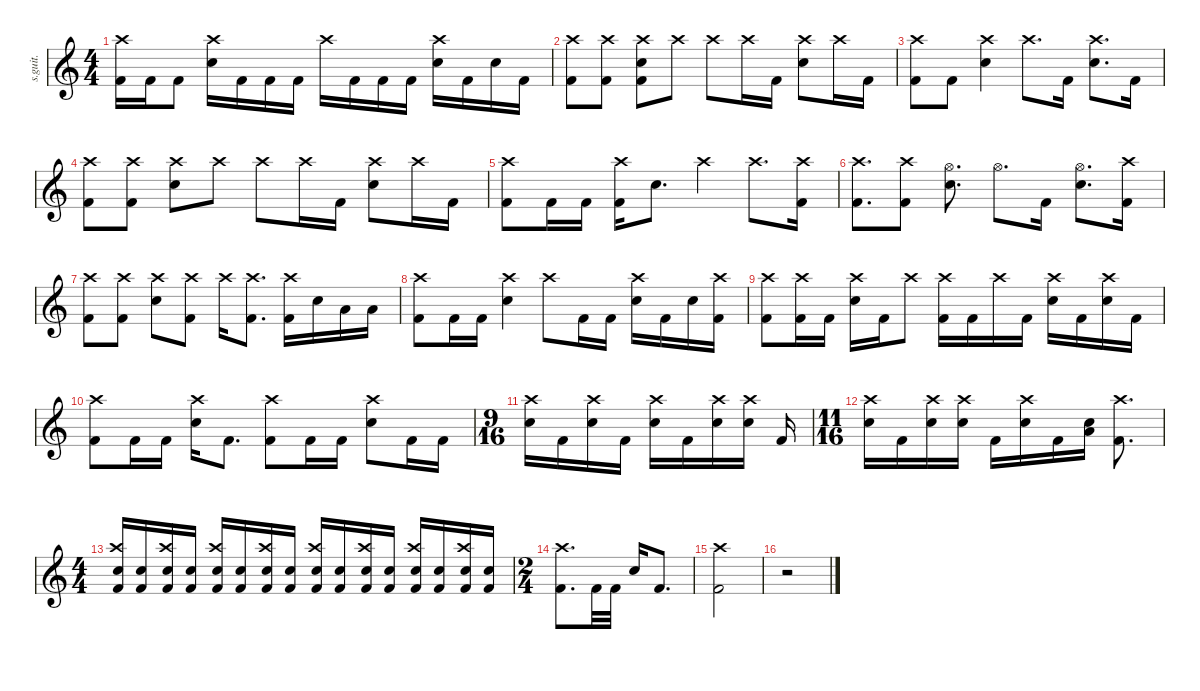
\defaultSystemsLayout 4
\hideDynamics
\bracketExtendMode nobrackets
\track ("" "s.guit.") {instrument percussion}
\staff {score}
\articulation defaults
\ts (4 4)
\tempo (106 hide)
\clef g2
\ks c
("Kick (hit) 2" "Crash high (hit)").16{lyrics (0 "") lyrics (1 "") lyrics (2 "") lyrics (3 "") lyrics (4 "") dy f} "Kick (hit) 2".16{lyrics (0 "") lyrics (1 "") lyrics (2 "") lyrics (3 "") lyrics (4 "")} "Kick (hit) 2".8{lyrics (0 "") lyrics (1 "") lyrics (2 "") lyrics (3 "") lyrics (4 "")} ("Snare (hit) 2" "Crash high (hit)").16{lyrics (0 "") lyrics (1 "") lyrics (2 "") lyrics (3 "") lyrics (4 "")} "Kick (hit) 2".16{lyrics (0 "") lyrics (1 "") lyrics (2 "") lyrics (3 "") lyrics (4 "")} "Kick (hit) 2".16{lyrics (0 "") lyrics (1 "") lyrics (2 "") lyrics (3 "") lyrics (4 "")} "Kick (hit) 2".16{lyrics (0 "") lyrics (1 "") lyrics (2 "") lyrics (3 "") lyrics (4 "")} "Crash high (hit)".16{lyrics (0 "") lyrics (1 "") lyrics (2 "") lyrics (3 "") lyrics (4 "")} "Kick (hit) 2".16{lyrics (0 "") lyrics (1 "") lyrics (2 "") lyrics (3 "") lyrics (4 "")} "Kick (hit) 2".16{lyrics (0 "") lyrics (1 "") lyrics (2 "") lyrics (3 "") lyrics (4 "")} "Kick (hit) 2".16{lyrics (0 "") lyrics (1 "") lyrics (2 "") lyrics (3 "") lyrics (4 "")} ("Snare (hit) 2" "Crash high (hit)").16{lyrics (0 "") lyrics (1 "") lyrics (2 "") lyrics (3 "") lyrics (4 "")} "Kick (hit) 2".16{lyrics (0 "") lyrics (1 "") lyrics (2 "") lyrics (3 "") lyrics (4 "")} "Snare (hit) 2".16{lyrics (0 "") lyrics (1 "") lyrics (2 "") lyrics (3 "") lyrics (4 "")} "Kick (hit) 2".16{lyrics (0 "") lyrics (1 "") lyrics (2 "") lyrics (3 "") lyrics (4 "")} |
("Kick (hit) 2" "Crash high (hit)").8{lyrics (0 "") lyrics (1 "") lyrics (2 "") lyrics (3 "") lyrics (4 "")} ("Kick (hit) 2" "Crash high (hit)").8{lyrics (0 "") lyrics (1 "") lyrics (2 "") lyrics (3 "") lyrics (4 "")} ("Kick (hit) 2" "Snare (hit) 2" "Crash high (hit)").8{lyrics (0 "") lyrics (1 "") lyrics (2 "") lyrics (3 "") lyrics (4 "")} "Crash high (hit)".8{lyrics (0 "") lyrics (1 "") lyrics (2 "") lyrics (3 "") lyrics (4 "")} "Crash high (hit)".8{lyrics (0 "") lyrics (1 "") lyrics (2 "") lyrics (3 "") lyrics (4 "")} "Crash high (hit)".16{lyrics (0 "") lyrics (1 "") lyrics (2 "") lyrics (3 "") lyrics (4 "")} "Kick (hit) 2".16{lyrics (0 "") lyrics (1 "") lyrics (2 "") lyrics (3 "") lyrics (4 "")} ("Snare (hit) 2" "Crash high (hit)").8{lyrics (0 "") lyrics (1 "") lyrics (2 "") lyrics (3 "") lyrics (4 "")} "Crash high (hit)".16{lyrics (0 "") lyrics (1 "") lyrics (2 "") lyrics (3 "") lyrics (4 "")} "Kick (hit) 2".16{lyrics (0 "") lyrics (1 "") lyrics (2 "") lyrics (3 "") lyrics (4 "")} |
("Kick (hit) 2" "Crash high (hit)").8{lyrics (0 "") lyrics (1 "") lyrics (2 "") lyrics (3 "") lyrics (4 "")} "Kick (hit) 2".8{lyrics (0 "") lyrics (1 "") lyrics (2 "") lyrics (3 "") lyrics (4 "")} ("Snare (hit) 2" "Crash high (hit)").4{lyrics (0 "") lyrics (1 "") lyrics (2 "") lyrics (3 "") lyrics (4 "")} "Crash high (hit)".8{d lyrics (0 "") lyrics (1 "") lyrics (2 "") lyrics (3 "") lyrics (4 "")} "Kick (hit) 2".16{lyrics (0 "") lyrics (1 "") lyrics (2 "") lyrics (3 "") lyrics (4 "")} ("Snare (hit) 2" "Crash high (hit)").8{d lyrics (0 "") lyrics (1 "") lyrics (2 "") lyrics (3 "") lyrics (4 "")} "Kick (hit) 2".16{lyrics (0 "") lyrics (1 "") lyrics (2 "") lyrics (3 "") lyrics (4 "")} |
("Kick (hit) 2" "Crash high (hit)").8{lyrics (0 "") lyrics (1 "") lyrics (2 "") lyrics (3 "") lyrics (4 "")} ("Kick (hit) 2" "Crash high (hit)").8{lyrics (0 "") lyrics (1 "") lyrics (2 "") lyrics (3 "") lyrics (4 "")} ("Snare (hit) 2" "Crash high (hit)").8{lyrics (0 "") lyrics (1 "") lyrics (2 "") lyrics (3 "") lyrics (4 "")} "Crash high (hit)".8{lyrics (0 "") lyrics (1 "") lyrics (2 "") lyrics (3 "") lyrics (4 "")} "Crash high (hit)".8{lyrics (0 "") lyrics (1 "") lyrics (2 "") lyrics (3 "") lyrics (4 "")} "Crash high (hit)".16{lyrics (0 "") lyrics (1 "") lyrics (2 "") lyrics (3 "") lyrics (4 "")} "Kick (hit) 2".16{lyrics (0 "") lyrics (1 "") lyrics (2 "") lyrics (3 "") lyrics (4 "")} ("Snare (hit) 2" "Crash high (hit)").8{lyrics (0 "") lyrics (1 "") lyrics (2 "") lyrics (3 "") lyrics (4 "")} "Crash high (hit)".16{lyrics (0 "") lyrics (1 "") lyrics (2 "") lyrics (3 "") lyrics (4 "")} "Kick (hit) 2".16{lyrics (0 "") lyrics (1 "") lyrics (2 "") lyrics (3 "") lyrics (4 "")} |
("Kick (hit) 2" "Crash high (hit)").8{lyrics (0 "") lyrics (1 "") lyrics (2 "") lyrics (3 "") lyrics (4 "")} "Kick (hit) 2".16{lyrics (0 "") lyrics (1 "") lyrics (2 "") lyrics (3 "") lyrics (4 "")} "Kick (hit) 2".16{lyrics (0 "") lyrics (1 "") lyrics (2 "") lyrics (3 "") lyrics (4 "")} ("Kick (hit) 2" "Crash high (hit)").16{lyrics (0 "") lyrics (1 "") lyrics (2 "") lyrics (3 "") lyrics (4 "")} "Snare (hit) 2".8{d lyrics (0 "") lyrics (1 "") lyrics (2 "") lyrics (3 "") lyrics (4 "")} "Crash high (hit)".4{lyrics (0 "") lyrics (1 "") lyrics (2 "") lyrics (3 "") lyrics (4 "")} "Crash high (hit)".8{d lyrics (0 "") lyrics (1 "") lyrics (2 "") lyrics (3 "") lyrics (4 "")} ("Kick (hit) 2" "Crash high (hit)").16{lyrics (0 "") lyrics (1 "") lyrics (2 "") lyrics (3 "") lyrics (4 "")} |
("Kick (hit) 2" "Crash high (hit)").8{d lyrics (0 "") lyrics (1 "") lyrics (2 "") lyrics (3 "") lyrics (4 "")} ("Kick (hit) 2" "Crash high (hit)").8{lyrics (0 "") lyrics (1 "") lyrics (2 "") lyrics (3 "") lyrics (4 "")} ("Snare (hit) 2" "Hi-Hat (open)").8{d lyrics (0 "") lyrics (1 "") lyrics (2 "") lyrics (3 "") lyrics (4 "")} "Hi-Hat (open)".8{d lyrics (0 "") lyrics (1 "") lyrics (2 "") lyrics (3 "") lyrics (4 "")} "Kick (hit) 2".16{lyrics (0 "") lyrics (1 "") lyrics (2 "") lyrics (3 "") lyrics (4 "")} ("Snare (hit) 2" "Hi-Hat (open)").8{d lyrics (0 "") lyrics (1 "") lyrics (2 "") lyrics (3 "") lyrics (4 "")} ("Kick (hit) 2" "Crash high (hit)").16{lyrics (0 "") lyrics (1 "") lyrics (2 "") lyrics (3 "") lyrics (4 "")} |
("Kick (hit) 2" "Crash high (hit)").8{lyrics (0 "") lyrics (1 "") lyrics (2 "") lyrics (3 "") lyrics (4 "")} ("Kick (hit) 2" "Crash high (hit)").8{lyrics (0 "") lyrics (1 "") lyrics (2 "") lyrics (3 "") lyrics (4 "")} ("Snare (hit) 2" "Crash high (hit)").8{lyrics (0 "") lyrics (1 "") lyrics (2 "") lyrics (3 "") lyrics (4 "")} ("Kick (hit) 2" "Crash high (hit)").8{lyrics (0 "") lyrics (1 "") lyrics (2 "") lyrics (3 "") lyrics (4 "")} "Crash high (hit)".16{lyrics (0 "") lyrics (1 "") lyrics (2 "") lyrics (3 "") lyrics (4 "")} ("Kick (hit) 2" "Crash high (hit)").8{d lyrics (0 "") lyrics (1 "") lyrics (2 "") lyrics (3 "") lyrics (4 "")} ("Kick (hit) 2" "Crash high (hit)").16{lyrics (0 "") lyrics (1 "") lyrics (2 "") lyrics (3 "") lyrics (4 "")} "Snare (hit) 2".16{lyrics (0 "") lyrics (1 "") lyrics (2 "") lyrics (3 "") lyrics (4 "")} "Low Tom (hit)".16{lyrics (0 "") lyrics (1 "") lyrics (2 "") lyrics (3 "") lyrics (4 "")} "Low Floor Tom (hit)".16{lyrics (0 "") lyrics (1 "") lyrics (2 "") lyrics (3 "") lyrics (4 "")} |
("Kick (hit) 2" "Crash high (hit)").8{lyrics (0 "") lyrics (1 "") lyrics (2 "") lyrics (3 "") lyrics (4 "")} "Kick (hit) 2".16{lyrics (0 "") lyrics (1 "") lyrics (2 "") lyrics (3 "") lyrics (4 "")} "Kick (hit) 2".16{lyrics (0 "") lyrics (1 "") lyrics (2 "") lyrics (3 "") lyrics (4 "")} ("Snare (hit) 2" "Crash high (hit)").4{lyrics (0 "") lyrics (1 "") lyrics (2 "") lyrics (3 "") lyrics (4 "")} "Crash high (hit)".8{lyrics (0 "") lyrics (1 "") lyrics (2 "") lyrics (3 "") lyrics (4 "")} "Kick (hit) 2".16{lyrics (0 "") lyrics (1 "") lyrics (2 "") lyrics (3 "") lyrics (4 "")} "Kick (hit) 2".16{lyrics (0 "") lyrics (1 "") lyrics (2 "") lyrics (3 "") lyrics (4 "")} ("Snare (hit) 2" "Crash high (hit)").16{lyrics (0 "") lyrics (1 "") lyrics (2 "") lyrics (3 "") lyrics (4 "")} "Kick (hit) 2".16{lyrics (0 "") lyrics (1 "") lyrics (2 "") lyrics (3 "") lyrics (4 "")} "Snare (hit) 2".16{lyrics (0 "") lyrics (1 "") lyrics (2 "") lyrics (3 "") lyrics (4 "")} ("Kick (hit) 2" "Crash high (hit)").16{lyrics (0 "") lyrics (1 "") lyrics (2 "") lyrics (3 "") lyrics (4 "")} |
("Kick (hit) 2" "Crash high (hit)").8{lyrics (0 "") lyrics (1 "") lyrics (2 "") lyrics (3 "") lyrics (4 "")} ("Kick (hit) 2" "Crash high (hit)").16{lyrics (0 "") lyrics (1 "") lyrics (2 "") lyrics (3 "") lyrics (4 "")} "Kick (hit) 2".16{lyrics (0 "") lyrics (1 "") lyrics (2 "") lyrics (3 "") lyrics (4 "")} ("Snare (hit) 2" "Crash high (hit)").16{lyrics (0 "") lyrics (1 "") lyrics (2 "") lyrics (3 "") lyrics (4 "")} "Kick (hit) 2".16{lyrics (0 "") lyrics (1 "") lyrics (2 "") lyrics (3 "") lyrics (4 "")} "Crash high (hit)".8{lyrics (0 "") lyrics (1 "") lyrics (2 "") lyrics (3 "") lyrics (4 "")} ("Kick (hit) 2" "Crash high (hit)").16{lyrics (0 "") lyrics (1 "") lyrics (2 "") lyrics (3 "") lyrics (4 "")} "Kick (hit) 2".16{lyrics (0 "") lyrics (1 "") lyrics (2 "") lyrics (3 "") lyrics (4 "")} "Crash high (hit)".16{lyrics (0 "") lyrics (1 "") lyrics (2 "") lyrics (3 "") lyrics (4 "")} "Kick (hit) 2".16{lyrics (0 "") lyrics (1 "") lyrics (2 "") lyrics (3 "") lyrics (4 "")} ("Snare (hit) 2" "Crash high (hit)").16{lyrics (0 "") lyrics (1 "") lyrics (2 "") lyrics (3 "") lyrics (4 "")} "Kick (hit) 2".16{lyrics (0 "") lyrics (1 "") lyrics (2 "") lyrics (3 "") lyrics (4 "")} ("Snare (hit) 2" "Crash high (hit)").16{lyrics (0 "") lyrics (1 "") lyrics (2 "") lyrics (3 "") lyrics (4 "")} "Kick (hit) 2".16{lyrics (0 "") lyrics (1 "") lyrics (2 "") lyrics (3 "") lyrics (4 "")} |
("Kick (hit) 2" "Crash high (hit)").8{lyrics (0 "") lyrics (1 "") lyrics (2 "") lyrics (3 "") lyrics (4 "")} "Kick (hit) 2".16{lyrics (0 "") lyrics (1 "") lyrics (2 "") lyrics (3 "") lyrics (4 "")} "Kick (hit) 2".16{lyrics (0 "") lyrics (1 "") lyrics (2 "") lyrics (3 "") lyrics (4 "")} ("Snare (hit) 2" "Crash high (hit)").16{lyrics (0 "") lyrics (1 "") lyrics (2 "") lyrics (3 "") lyrics (4 "")} "Kick (hit) 2".8{d lyrics (0 "") lyrics (1 "") lyrics (2 "") lyrics (3 "") lyrics (4 "")} ("Kick (hit) 2" "Crash high (hit)").8{lyrics (0 "") lyrics (1 "") lyrics (2 "") lyrics (3 "") lyrics (4 "")} "Kick (hit) 2".16{lyrics (0 "") lyrics (1 "") lyrics (2 "") lyrics (3 "") lyrics (4 "")} "Kick (hit) 2".16{lyrics (0 "") lyrics (1 "") lyrics (2 "") lyrics (3 "") lyrics (4 "")} ("Snare (hit) 2" "Crash high (hit)").8{lyrics (0 "") lyrics (1 "") lyrics (2 "") lyrics (3 "") lyrics (4 "")} "Kick (hit) 2".16{lyrics (0 "") lyrics (1 "") lyrics (2 "") lyrics (3 "") lyrics (4 "")} "Kick (hit) 2".16{lyrics (0 "") lyrics (1 "") lyrics (2 "") lyrics (3 "") lyrics (4 "")} |
\ts (9 16)
\beaming (8 2 2 2 2)
("Snare (hit) 2" "Crash high (hit)").16{lyrics (0 "") lyrics (1 "") lyrics (2 "") lyrics (3 "") lyrics (4 "")} "Kick (hit) 2".16{lyrics (0 "") lyrics (1 "") lyrics (2 "") lyrics (3 "") lyrics (4 "")} ("Snare (hit) 2" "Crash high (hit)").16{lyrics (0 "") lyrics (1 "") lyrics (2 "") lyrics (3 "") lyrics (4 "")} "Kick (hit) 2".16{lyrics (0 "") lyrics (1 "") lyrics (2 "") lyrics (3 "") lyrics (4 "")} ("Snare (hit) 2" "Crash high (hit)").16{lyrics (0 "") lyrics (1 "") lyrics (2 "") lyrics (3 "") lyrics (4 "")} "Kick (hit) 2".16{lyrics (0 "") lyrics (1 "") lyrics (2 "") lyrics (3 "") lyrics (4 "")} ("Snare (hit) 2" "Crash high (hit)").16{lyrics (0 "") lyrics (1 "") lyrics (2 "") lyrics (3 "") lyrics (4 "")} ("Snare (hit) 2" "Crash high (hit)").16{lyrics (0 "") lyrics (1 "") lyrics (2 "") lyrics (3 "") lyrics (4 "")} "Kick (hit) 2".16{lyrics (0 "") lyrics (1 "") lyrics (2 "") lyrics (3 "") lyrics (4 "")} |
\ts (11 16)
\beaming (8 2 2 2 2)
("Snare (hit) 2" "Crash high (hit)").16{lyrics (0 "") lyrics (1 "") lyrics (2 "") lyrics (3 "") lyrics (4 "")} "Kick (hit) 2".16{lyrics (0 "") lyrics (1 "") lyrics (2 "") lyrics (3 "") lyrics (4 "")} ("Snare (hit) 2" "Crash high (hit)").16{lyrics (0 "") lyrics (1 "") lyrics (2 "") lyrics (3 "") lyrics (4 "")} ("Snare (hit) 2" "Crash high (hit)").16{lyrics (0 "") lyrics (1 "") lyrics (2 "") lyrics (3 "") lyrics (4 "")} "Kick (hit) 2".16{lyrics (0 "") lyrics (1 "") lyrics (2 "") lyrics (3 "") lyrics (4 "")} ("Snare (hit) 2" "Crash high (hit)").16{lyrics (0 "") lyrics (1 "") lyrics (2 "") lyrics (3 "") lyrics (4 "")} "Kick (hit) 2".16{lyrics (0 "") lyrics (1 "") lyrics (2 "") lyrics (3 "") lyrics (4 "")} ("Snare (hit) 2" "Low Floor Tom (hit)").16{lyrics (0 "") lyrics (1 "") lyrics (2 "") lyrics (3 "") lyrics (4 "")} ("Kick (hit) 2" "Crash high (hit)").8{d lyrics (0 "") lyrics (1 "") lyrics (2 "") lyrics (3 "") lyrics (4 "")} |
\ts (4 4)
\beaming (8 2 2 2 2)
("Kick (hit) 2" "Snare (hit) 2" "Crash high (hit)").16{lyrics (0 "") lyrics (1 "") lyrics (2 "") lyrics (3 "") lyrics (4 "")} ("Kick (hit) 2" "Snare (hit) 2").16{lyrics (0 "") lyrics (1 "") lyrics (2 "") lyrics (3 "") lyrics (4 "")} ("Kick (hit) 2" "Snare (hit) 2" "Crash high (hit)").16{lyrics (0 "") lyrics (1 "") lyrics (2 "") lyrics (3 "") lyrics (4 "")} ("Kick (hit) 2" "Snare (hit) 2").16{lyrics (0 "") lyrics (1 "") lyrics (2 "") lyrics (3 "") lyrics (4 "")} ("Kick (hit) 2" "Snare (hit) 2" "Crash high (hit)").16{lyrics (0 "") lyrics (1 "") lyrics (2 "") lyrics (3 "") lyrics (4 "")} ("Kick (hit) 2" "Snare (hit) 2").16{lyrics (0 "") lyrics (1 "") lyrics (2 "") lyrics (3 "") lyrics (4 "")} ("Kick (hit) 2" "Snare (hit) 2" "Crash high (hit)").16{lyrics (0 "") lyrics (1 "") lyrics (2 "") lyrics (3 "") lyrics (4 "")} ("Kick (hit) 2" "Snare (hit) 2").16{lyrics (0 "") lyrics (1 "") lyrics (2 "") lyrics (3 "") lyrics (4 "")} ("Kick (hit) 2" "Snare (hit) 2" "Crash high (hit)").16{lyrics (0 "") lyrics (1 "") lyrics (2 "") lyrics (3 "") lyrics (4 "")} ("Kick (hit) 2" "Snare (hit) 2").16{lyrics (0 "") lyrics (1 "") lyrics (2 "") lyrics (3 "") lyrics (4 "")} ("Kick (hit) 2" "Snare (hit) 2" "Crash high (hit)").16{lyrics (0 "") lyrics (1 "") lyrics (2 "") lyrics (3 "") lyrics (4 "")} ("Kick (hit) 2" "Snare (hit) 2").16{lyrics (0 "") lyrics (1 "") lyrics (2 "") lyrics (3 "") lyrics (4 "")} ("Kick (hit) 2" "Snare (hit) 2" "Crash high (hit)").16{lyrics (0 "") lyrics (1 "") lyrics (2 "") lyrics (3 "") lyrics (4 "")} ("Kick (hit) 2" "Snare (hit) 2").16{lyrics (0 "") lyrics (1 "") lyrics (2 "") lyrics (3 "") lyrics (4 "")} ("Kick (hit) 2" "Snare (hit) 2" "Crash high (hit)").16{lyrics (0 "") lyrics (1 "") lyrics (2 "") lyrics (3 "") lyrics (4 "")} ("Kick (hit) 2" "Snare (hit) 2").16{lyrics (0 "") lyrics (1 "") lyrics (2 "") lyrics (3 "") lyrics (4 "")} |
\ts (2 4)
\beaming (8 2 2 2 2)
("Kick (hit) 2" "Crash high (hit)").8{d lyrics (0 "") lyrics (1 "") lyrics (2 "") lyrics (3 "") lyrics (4 "")} "Kick (hit) 2".32{lyrics (0 "") lyrics (1 "") lyrics (2 "") lyrics (3 "") lyrics (4 "")} "Kick (hit) 2".32{lyrics (0 "") lyrics (1 "") lyrics (2 "") lyrics (3 "") lyrics (4 "")} "Snare (hit) 2".16{lyrics (0 "") lyrics (1 "") lyrics (2 "") lyrics (3 "") lyrics (4 "")} "Kick (hit) 2".8{d lyrics (0 "") lyrics (1 "") lyrics (2 "") lyrics (3 "") lyrics (4 "")} |
("Kick (hit) 2" "Crash high (hit)").2{lyrics (0 "") lyrics (1 "") lyrics (2 "") lyrics (3 "") lyrics (4 "")} |
r.2
